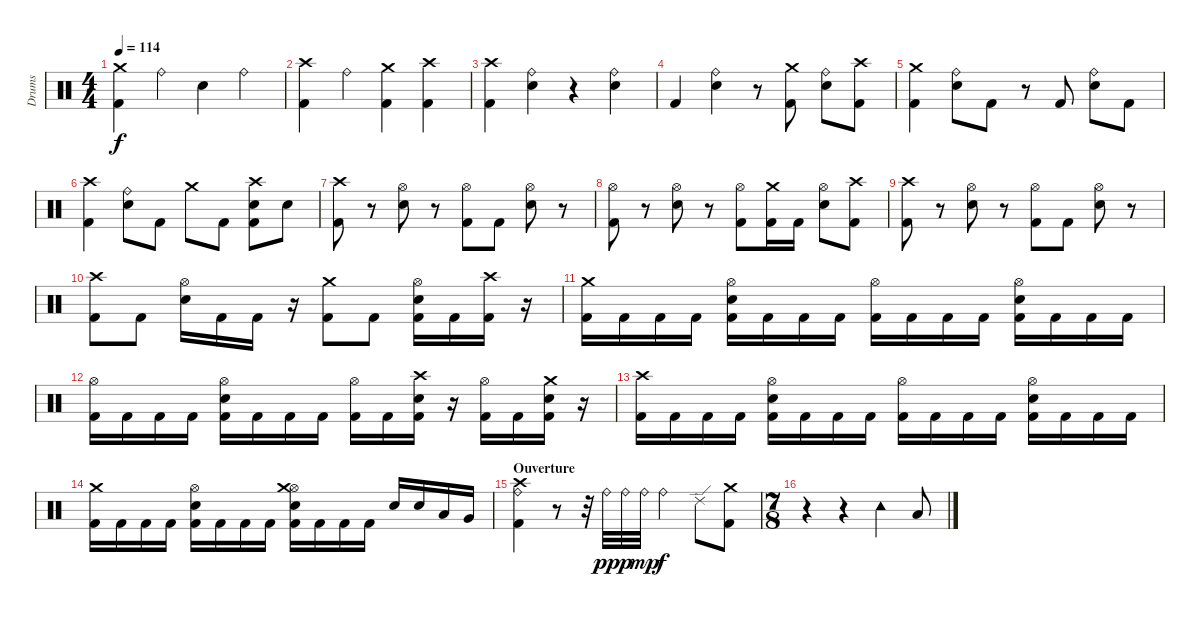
\track ("Drums" "Drums") {instrument percussion}
\staff {score}
\articulation defaults
\ts (4 4)
\tempo 114
\clef neutral
\ks c
("Kick (hit) 2" "Crash medium (hit)").4{dy f} "Ride (bell)".4 "Electric Snare (hit)".4 "Ride (bell)".4 |
("Kick (hit) 2" "Crash high (hit)").4 "Ride (bell)".4 ("Kick (hit) 2" "Crash medium (hit)").4 ("Kick (hit) 2" "Crash high (hit)").4 |
("Kick (hit) 2" "Crash high (hit)").4 ("Ride (bell)" "Electric Snare (hit)").4 r.4 ("Ride (bell)" "Electric Snare (hit)").4 |
"Kick (hit) 2".4 ("Ride (bell)" "Electric Snare (hit)").4 r.8 ("Kick (hit) 2" "Crash medium (hit)").8 ("Ride (bell)" "Electric Snare (hit)").8 ("Kick (hit) 2" "Crash high (hit)").8 |
("Kick (hit) 2" "Crash medium (hit)").4 ("Ride (bell)" "Electric Snare (hit)").8 "Kick (hit) 2".8 r.8 "Kick (hit) 2".8 ("Ride (bell)" "Electric Snare (hit)").8 "Kick (hit) 2".8 |
("Kick (hit) 2" "Crash high (hit)").4 ("Ride (bell)" "Electric Snare (hit)").8 "Kick (hit) 2".8 "Crash medium (hit)".8 "Kick (hit) 2".8 ("Kick (hit) 2" "Electric Snare (hit)" "Crash high (hit)").8 "Electric Snare (hit)".8 |
("Kick (hit) 2" "Crash high (hit)").8 r.8 ("Electric Snare (hit)" "Hi-Hat (open)").8 r.8 ("Kick (hit) 2" "Hi-Hat (open)").8 "Kick (hit) 2".8 ("Electric Snare (hit)" "Hi-Hat (open)").8 r.8 |
("Kick (hit) 2" "Hi-Hat (open)").8 r.8 ("Electric Snare (hit)" "Hi-Hat (open)").8 r.8 ("Kick (hit) 2" "Hi-Hat (open)").8 ("Kick (hit) 2" "Crash medium (hit)").16 "Kick (hit) 2".16 ("Electric Snare (hit)" "Hi-Hat (open)").8 ("Kick (hit) 2" "Crash high (hit)").8 |
("Kick (hit) 2" "Crash high (hit)").8 r.8 ("Electric Snare (hit)" "Hi-Hat (open)").8 r.8 ("Kick (hit) 2" "Hi-Hat (open)").8 "Kick (hit) 2".8 ("Electric Snare (hit)" "Hi-Hat (open)").8 r.8 |
("Kick (hit) 2" "Crash high (hit)").8 "Kick (hit) 2".8 ("Electric Snare (hit)" "Hi-Hat (open)").16 "Kick (hit) 2".16 "Kick (hit) 2".16 r.16 ("Kick (hit) 2" "Crash medium (hit)").8 "Kick (hit) 2".8 ("Kick (hit) 2" "Electric Snare (hit)" "Hi-Hat (open)").16 "Kick (hit) 2".16 ("Kick (hit) 2" "Crash high (hit)").16 r.16 |
("Kick (hit) 2" "Crash medium (hit)").16 "Kick (hit) 2".16 "Kick (hit) 2".16 "Kick (hit) 2".16 ("Kick (hit) 2" "Electric Snare (hit)" "Hi-Hat (open)").16 "Kick (hit) 2".16 "Kick (hit) 2".16 "Kick (hit) 2".16 ("Kick (hit) 2" "Hi-Hat (open)").16 "Kick (hit) 2".16 "Kick (hit) 2".16 "Kick (hit) 2".16 ("Kick (hit) 2" "Electric Snare (hit)" "Hi-Hat (open)").16 "Kick (hit) 2".16 "Kick (hit) 2".16 "Kick (hit) 2".16 |
("Kick (hit) 2" "Hi-Hat (open)").16 "Kick (hit) 2".16 "Kick (hit) 2".16 "Kick (hit) 2".16 ("Kick (hit) 2" "Electric Snare (hit)" "Hi-Hat (open)").16 "Kick (hit) 2".16 "Kick (hit) 2".16 "Kick (hit) 2".16 ("Kick (hit) 2" "Hi-Hat (open)").16 "Kick (hit) 2".16 ("Kick (hit) 2" "Electric Snare (hit)" "Crash high (hit)").16 r.16 ("Kick (hit) 2" "Hi-Hat (open)").16 "Kick (hit) 2".16 ("Kick (hit) 2" "Electric Snare (hit)" "Crash medium (hit)").16 r.16 |
("Kick (hit) 2" "Crash high (hit)").16 "Kick (hit) 2".16 "Kick (hit) 2".16 "Kick (hit) 2".16 ("Kick (hit) 2" "Electric Snare (hit)" "Hi-Hat (open)").16 "Kick (hit) 2".16 "Kick (hit) 2".16 "Kick (hit) 2".16 ("Kick (hit) 2" "Hi-Hat (open)").16 "Kick (hit) 2".16 "Kick (hit) 2".16 "Kick (hit) 2".16 ("Kick (hit) 2" "Electric Snare (hit)" "Hi-Hat (open)").16 "Kick (hit) 2".16 "Kick (hit) 2".16 "Kick (hit) 2".16 |
("Kick (hit) 2" "Crash medium (hit)").16 "Kick (hit) 2".16 "Kick (hit) 2".16 "Kick (hit) 2".16 ("Kick (hit) 2" "Electric Snare (hit)" "Hi-Hat (open)").16 "Kick (hit) 2".16 "Kick (hit) 2".16 "Kick (hit) 2".16 ("Kick (hit) 2" "Electric Snare (hit)" "Hi-Hat (open)" "Crash medium (hit)").16 "Kick (hit) 2".16 "Kick (hit) 2".16 "Kick (hit) 2".16 "Electric Snare (hit)".16 "Electric Snare (hit)".16 "Low Tom (hit)".16 "Very Low Tom (hit)".16 |
\section ("" "Ouverture")
("Kick (hit) 2" "Ride (bell)" "Crash high (hit)").4 r.8 r.32 "Ride (bell)".32{dy pp} "Ride (bell)".32{dy p} "Ride (bell)".32{dy mp} "Ride (bell)".4{dy f} "Ride (edge) 2".8 ("Kick (hit) 2" "Crash medium (hit)").8 |
\ts (7 8)
r.4 r.4 "Tambourine (hit)".4 "Low Floor Tom (hit)".8
